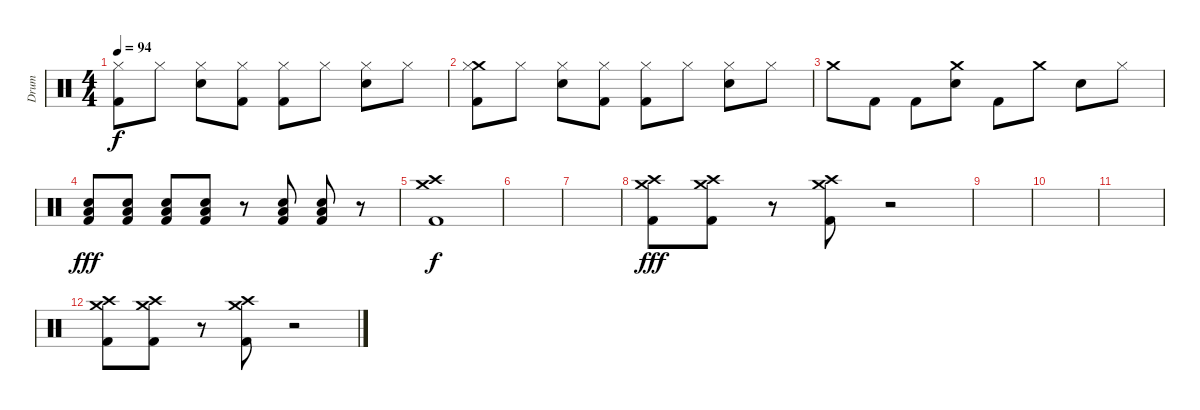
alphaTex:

\track ("Drum" "Drum") {instrument percussion}
\staff {score}
\articulation defaults
\ts (4 4)
\tempo 94
\clef neutral
\ks c
("Hi-Hat (closed)" "Kick (hit) 2").8{dy f} "Hi-Hat (closed)".8 ("Hi-Hat (closed)" "Snare (hit) 2").8 ("Hi-Hat (closed)" "Kick (hit) 2").8 ("Hi-Hat (closed)" "Kick (hit) 2").8 "Hi-Hat (closed)".8 ("Hi-Hat (closed)" "Snare (hit) 2").8 "Hi-Hat (closed)".8 |
("Crash medium (hit)" "Hi-Hat (closed)" "Kick (hit) 2").8 "Hi-Hat (closed)".8 ("Hi-Hat (closed)" "Snare (hit) 2").8 ("Hi-Hat (closed)" "Kick (hit) 2").8 ("Hi-Hat (closed)" "Kick (hit) 2").8 "Hi-Hat (closed)".8 ("Hi-Hat (closed)" "Snare (hit) 2").8 "Hi-Hat (closed)".8 |
"Crash medium (hit)".8 "Kick (hit) 2".8 "Kick (hit) 2".8 ("Crash medium (hit)" "Snare (hit) 2").8 "Kick (hit) 2".8 "Crash medium (hit)".8 "Snare (hit) 2".8 "Hi-Hat (closed)".8 |
("Low Floor Tom (hit)" "Snare (hit) 2" "Kick (hit) 2").8{dy fff} ("Low Floor Tom (hit)" "Snare (hit) 2" "Kick (hit) 2").8 ("Low Floor Tom (hit)" "Snare (hit) 2" "Kick (hit) 2").8 ("Low Floor Tom (hit)" "Snare (hit) 2" "Kick (hit) 2").8 r.8 ("Low Floor Tom (hit)" "Snare (hit) 2" "Kick (hit) 2").8 ("Low Floor Tom (hit)" "Snare (hit) 2" "Kick (hit) 2").8 r.8 |
("Crash medium (hit)" "Crash high (hit)" "Kick (hit) 2").1{dy f} |
|
|
("Crash medium (hit)" "Crash high (hit)" "Kick (hit) 2").8{dy fff} ("Crash medium (hit)" "Crash high (hit)" "Kick (hit) 2").8 r.8 ("Crash medium (hit)" "Crash high (hit)" "Kick (hit) 2").8 r.2 |
|
|
|
("Crash medium (hit)" "Crash high (hit)" "Kick (hit) 2").8 ("Crash medium (hit)" "Crash high (hit)" "Kick (hit) 2").8 r.8 ("Crash medium (hit)" "Crash high (hit)" "Kick (hit) 2").8 r.2
